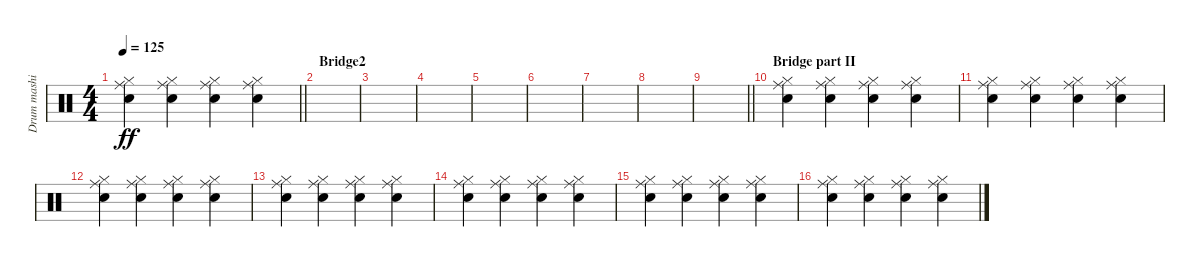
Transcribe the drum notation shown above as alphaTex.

\track ("Drum mashine" "Drum mashi") {instrument percussion}
\staff
\articulation defaults
\ts (4 4)
\tempo 125
\clef neutral
\barLineRight lightlight
\ks c
("Ride (middle)" "Electric Snare (hit)" "Hi-Hat (closed)").4{dy ff} ("Ride (middle)" "Electric Snare (hit)" "Hi-Hat (closed)").4 ("Ride (middle)" "Electric Snare (hit)" "Hi-Hat (closed)").4 ("Ride (middle)" "Electric Snare (hit)" "Hi-Hat (closed)").4 |
\section ("" "Bridge2")
|
|
|
|
|
|
|
\barLineRight lightlight
|
\section ("" "Bridge part II")
("Ride (middle)" "Electric Snare (hit)" "Hi-Hat (closed)").4 ("Ride (middle)" "Electric Snare (hit)" "Hi-Hat (closed)").4 ("Ride (middle)" "Electric Snare (hit)" "Hi-Hat (closed)").4 ("Ride (middle)" "Electric Snare (hit)" "Hi-Hat (closed)").4 |
("Ride (middle)" "Electric Snare (hit)" "Hi-Hat (closed)").4 ("Ride (middle)" "Electric Snare (hit)" "Hi-Hat (closed)").4 ("Ride (middle)" "Electric Snare (hit)" "Hi-Hat (closed)").4 ("Ride (middle)" "Electric Snare (hit)" "Hi-Hat (closed)").4 |
("Ride (middle)" "Electric Snare (hit)" "Hi-Hat (closed)").4 ("Ride (middle)" "Electric Snare (hit)" "Hi-Hat (closed)").4 ("Ride (middle)" "Electric Snare (hit)" "Hi-Hat (closed)").4 ("Ride (middle)" "Electric Snare (hit)" "Hi-Hat (closed)").4 |
("Ride (middle)" "Electric Snare (hit)" "Hi-Hat (closed)").4 ("Ride (middle)" "Electric Snare (hit)" "Hi-Hat (closed)").4 ("Ride (middle)" "Electric Snare (hit)" "Hi-Hat (closed)").4 ("Ride (middle)" "Electric Snare (hit)" "Hi-Hat (closed)").4 |
("Ride (middle)" "Electric Snare (hit)" "Hi-Hat (closed)").4 ("Ride (middle)" "Electric Snare (hit)" "Hi-Hat (closed)").4 ("Ride (middle)" "Electric Snare (hit)" "Hi-Hat (closed)").4 ("Ride (middle)" "Electric Snare (hit)" "Hi-Hat (closed)").4 |
("Ride (middle)" "Electric Snare (hit)" "Hi-Hat (closed)").4 ("Ride (middle)" "Electric Snare (hit)" "Hi-Hat (closed)").4 ("Ride (middle)" "Electric Snare (hit)" "Hi-Hat (closed)").4 ("Ride (middle)" "Electric Snare (hit)" "Hi-Hat (closed)").4 |
("Ride (middle)" "Electric Snare (hit)" "Hi-Hat (closed)").4 ("Ride (middle)" "Electric Snare (hit)" "Hi-Hat (closed)").4 ("Ride (middle)" "Electric Snare (hit)" "Hi-Hat (closed)").4 ("Ride (middle)" "Electric Snare (hit)" "Hi-Hat (closed)").4
